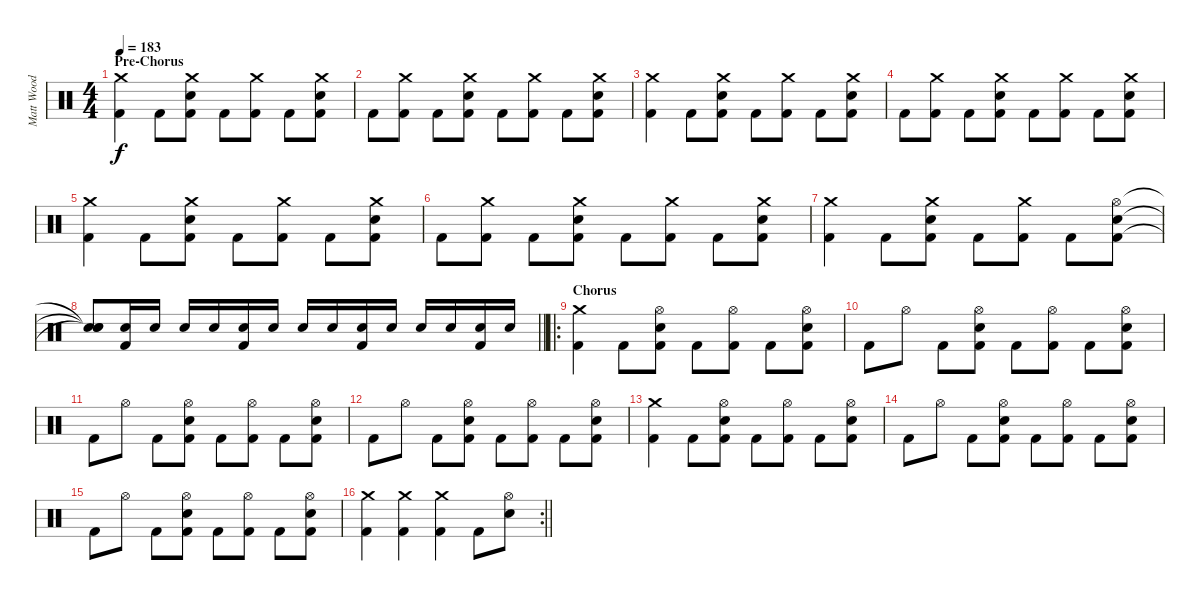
\track ("Matt Wood" "Matt Wood") {instrument percussion}
\staff {score}
\articulation defaults
\ts (4 4)
\section ("" "Pre-Chorus")
\tempo 183
\clef neutral
\ks c
("Crash medium (hit)" "Kick (hit) 2").4{dy f} "Kick (hit) 2".8 ("Crash medium (hit)" "Snare (hit) 2" "Kick (hit) 2").8 "Kick (hit) 2".8 ("Crash medium (hit)" "Kick (hit) 2").8 "Kick (hit) 2".8 ("Crash medium (hit)" "Snare (hit) 2" "Kick (hit) 2").8 |
"Kick (hit) 2".8 ("Crash medium (hit)" "Kick (hit) 2").8 "Kick (hit) 2".8 ("Crash medium (hit)" "Snare (hit) 2" "Kick (hit) 2").8 "Kick (hit) 2".8 ("Crash medium (hit)" "Kick (hit) 2").8 "Kick (hit) 2".8 ("Crash medium (hit)" "Snare (hit) 2" "Kick (hit) 2").8 |
("Crash medium (hit)" "Kick (hit) 2").4 "Kick (hit) 2".8 ("Crash medium (hit)" "Snare (hit) 2" "Kick (hit) 2").8 "Kick (hit) 2".8 ("Crash medium (hit)" "Kick (hit) 2").8 "Kick (hit) 2".8 ("Crash medium (hit)" "Snare (hit) 2" "Kick (hit) 2").8 |
"Kick (hit) 2".8 ("Crash medium (hit)" "Kick (hit) 2").8 "Kick (hit) 2".8 ("Crash medium (hit)" "Snare (hit) 2" "Kick (hit) 2").8 "Kick (hit) 2".8 ("Crash medium (hit)" "Kick (hit) 2").8 "Kick (hit) 2".8 ("Crash medium (hit)" "Snare (hit) 2" "Kick (hit) 2").8 |
("Crash medium (hit)" "Kick (hit) 2").4 "Kick (hit) 2".8 ("Crash medium (hit)" "Snare (hit) 2" "Kick (hit) 2").8 "Kick (hit) 2".8 ("Crash medium (hit)" "Kick (hit) 2").8 "Kick (hit) 2".8 ("Crash medium (hit)" "Snare (hit) 2" "Kick (hit) 2").8 |
"Kick (hit) 2".8 ("Crash medium (hit)" "Kick (hit) 2").8 "Kick (hit) 2".8 ("Crash medium (hit)" "Snare (hit) 2" "Kick (hit) 2").8 "Kick (hit) 2".8 ("Crash medium (hit)" "Kick (hit) 2").8 "Kick (hit) 2".8 ("Crash medium (hit)" "Snare (hit) 2" "Kick (hit) 2").8 |
("Crash medium (hit)" "Kick (hit) 2").4 "Kick (hit) 2".8 ("Crash medium (hit)" "Snare (hit) 2" "Kick (hit) 2").8 "Kick (hit) 2".8 ("Crash medium (hit)" "Kick (hit) 2").8 "Kick (hit) 2".8 ("Hi-Hat (open)" "Snare (hit) 2" "Kick (hit) 2").8 |
\barLineRight lightlight
("Snare (hit)"{t} "Snare (hit) 2"{t} "Snare (hit)"{t}).8 ("Snare (hit) 2" "Kick (hit) 2").16 "Snare (hit) 2".16 "Snare (hit) 2".16 "Snare (hit) 2".16 ("Snare (hit) 2" "Kick (hit) 2").16 "Snare (hit) 2".16 "Snare (hit) 2".16 "Snare (hit) 2".16 ("Snare (hit) 2" "Kick (hit) 2").16 "Snare (hit) 2".16 "Snare (hit) 2".16 "Snare (hit) 2".16 ("Snare (hit) 2" "Kick (hit) 2").16 "Snare (hit) 2".16 |
\ro
\section ("" "Chorus")
("Crash medium (hit)" "Kick (hit) 2").4 "Kick (hit) 2".8 ("Hi-Hat (open)" "Snare (hit) 2" "Kick (hit) 2").8 "Kick (hit) 2".8 ("Hi-Hat (open)" "Kick (hit) 2").8 "Kick (hit) 2".8 ("Hi-Hat (open)" "Snare (hit) 2" "Kick (hit) 2").8 |
"Kick (hit) 2".8 "Hi-Hat (open)".8 "Kick (hit) 2".8 ("Hi-Hat (open)" "Snare (hit) 2" "Kick (hit) 2").8 "Kick (hit) 2".8 ("Hi-Hat (open)" "Kick (hit) 2").8 "Kick (hit) 2".8 ("Hi-Hat (open)" "Snare (hit) 2" "Kick (hit) 2").8 |
"Kick (hit) 2".8 "Hi-Hat (open)".8 "Kick (hit) 2".8 ("Hi-Hat (open)" "Snare (hit) 2" "Kick (hit) 2").8 "Kick (hit) 2".8 ("Hi-Hat (open)" "Kick (hit) 2").8 "Kick (hit) 2".8 ("Hi-Hat (open)" "Snare (hit) 2" "Kick (hit) 2").8 |
"Kick (hit) 2".8 "Hi-Hat (open)".8 "Kick (hit) 2".8 ("Hi-Hat (open)" "Snare (hit) 2" "Kick (hit) 2").8 "Kick (hit) 2".8 ("Hi-Hat (open)" "Kick (hit) 2").8 "Kick (hit) 2".8 ("Hi-Hat (open)" "Snare (hit) 2" "Kick (hit) 2").8 |
("Crash medium (hit)" "Kick (hit) 2").4 "Kick (hit) 2".8 ("Hi-Hat (open)" "Snare (hit) 2" "Kick (hit) 2").8 "Kick (hit) 2".8 ("Hi-Hat (open)" "Kick (hit) 2").8 "Kick (hit) 2".8 ("Hi-Hat (open)" "Snare (hit) 2" "Kick (hit) 2").8 |
"Kick (hit) 2".8 "Hi-Hat (open)".8 "Kick (hit) 2".8 ("Hi-Hat (open)" "Snare (hit) 2" "Kick (hit) 2").8 "Kick (hit) 2".8 ("Hi-Hat (open)" "Kick (hit) 2").8 "Kick (hit) 2".8 ("Hi-Hat (open)" "Snare (hit) 2" "Kick (hit) 2").8 |
"Kick (hit) 2".8 "Hi-Hat (open)".8 "Kick (hit) 2".8 ("Hi-Hat (open)" "Snare (hit) 2" "Kick (hit) 2").8 "Kick (hit) 2".8 ("Hi-Hat (open)" "Kick (hit) 2").8 "Kick (hit) 2".8 ("Hi-Hat (open)" "Snare (hit) 2" "Kick (hit) 2").8 |
\rc 2
\barLineRight lightlight
("Crash medium (hit)" "Kick (hit) 2").4 ("Crash medium (hit)" "Kick (hit) 2").4 ("Crash medium (hit)" "Kick (hit) 2").4 "Kick (hit) 2".8 ("Hi-Hat (open)" "Snare (hit) 2").8
